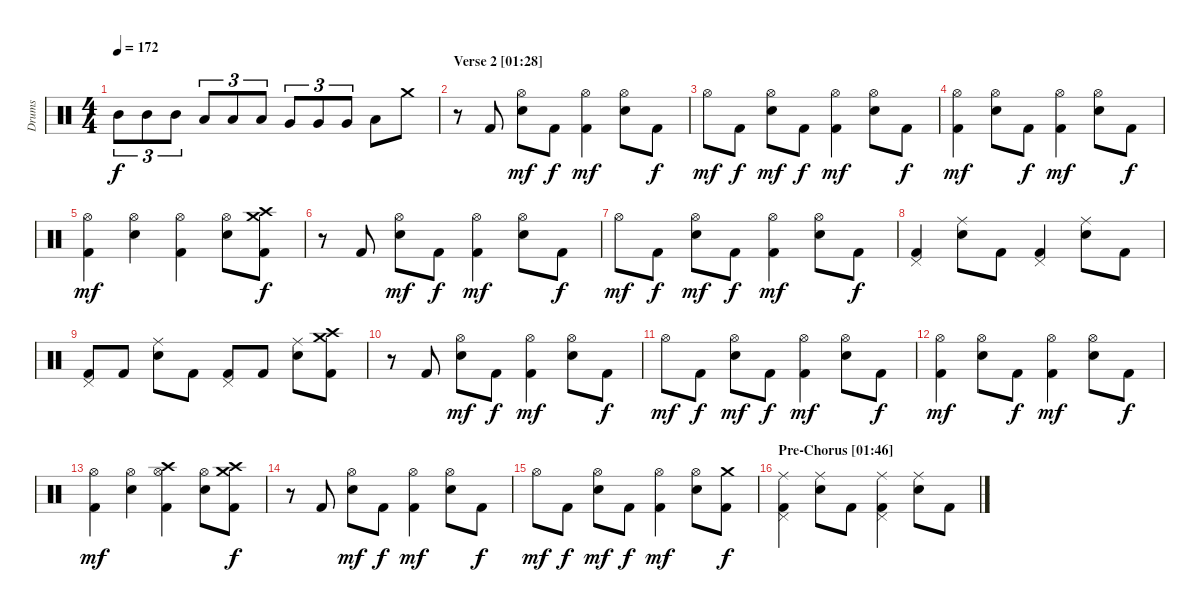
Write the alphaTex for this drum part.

\track ("Drums" "Drums") {instrument percussion}
\staff {score}
\articulation defaults
\ts (4 4)
\tempo 172
\clef neutral
\ks c "Mid Tom (hit)".8{tu (3 2) dy f} "Mid Tom (hit)".8{tu (3 2)} "Mid Tom (hit)".8{tu (3 2)} "Low Tom (hit)".8{tu (3 2)} "Low Tom (hit)".8{tu (3 2)} "Low Tom (hit)".8{tu (3 2)} "Very Low Tom (hit)".8{tu (3 2)} "Very Low Tom (hit)".8{tu (3 2)} "Very Low Tom (hit)".8{tu (3 2)} "Low Floor Tom (hit)".8 "Crash medium (hit)".8
|
\section ("" "Verse 2 [01:28]")
r.8 "Kick (hit) 2".8 ("Hi-Hat (open)" "Electric Snare (hit)").8{dy mf} "Kick (hit) 2".8{dy f} ("Hi-Hat (open)" "Kick (hit) 2").4{dy mf} ("Hi-Hat (open)" "Electric Snare (hit)").8 "Kick (hit) 2".8{dy f} |
"Hi-Hat (open)".8{dy mf} "Kick (hit) 2".8{dy f} ("Hi-Hat (open)" "Electric Snare (hit)").8{dy mf} "Kick (hit) 2".8{dy f} ("Hi-Hat (open)" "Kick (hit) 2").4{dy mf} ("Hi-Hat (open)" "Electric Snare (hit)").8 "Kick (hit) 2".8{dy f} |
("Hi-Hat (open)" "Kick (hit) 2").4{dy mf} ("Hi-Hat (open)" "Electric Snare (hit)").8 "Kick (hit) 2".8{dy f} ("Hi-Hat (open)" "Kick (hit) 2").4{dy mf} ("Hi-Hat (open)" "Electric Snare (hit)").8 "Kick (hit) 2".8{dy f} |
("Hi-Hat (open)" "Kick (hit) 2").4{dy mf} ("Hi-Hat (open)" "Electric Snare (hit)").4 ("Hi-Hat (open)" "Kick (hit) 2").4 ("Hi-Hat (open)" "Electric Snare (hit)").8 ("Crash medium (hit)" "Crash high (hit)" "Kick (hit) 2").8{dy f} |
r.8 "Kick (hit) 2".8 ("Hi-Hat (open)" "Electric Snare (hit)").8{dy mf} "Kick (hit) 2".8{dy f} ("Hi-Hat (open)" "Kick (hit) 2").4{dy mf} ("Hi-Hat (open)" "Electric Snare (hit)").8 "Kick (hit) 2".8{dy f} |
"Hi-Hat (open)".8{dy mf} "Kick (hit) 2".8{dy f} ("Hi-Hat (open)" "Electric Snare (hit)").8{dy mf} "Kick (hit) 2".8{dy f} ("Hi-Hat (open)" "Kick (hit) 2").4{dy mf} ("Hi-Hat (open)" "Electric Snare (hit)").8 "Kick (hit) 2".8{dy f} |
("Pedal Hi-Hat (hit)" "Kick (hit) 2").4 ("Ride (middle)" "Electric Snare (hit)").8 "Kick (hit) 2".8 ("Pedal Hi-Hat (hit)" "Kick (hit) 2").4 ("Ride (middle)" "Electric Snare (hit)").8 "Kick (hit) 2".8 |
("Pedal Hi-Hat (hit)" "Kick (hit) 2").8 "Kick (hit) 2".8 ("Ride (middle)" "Electric Snare (hit)").8 "Kick (hit) 2".8 ("Pedal Hi-Hat (hit)" "Kick (hit) 2").8 "Kick (hit) 2".8 ("Ride (middle)" "Electric Snare (hit)").8 ("Crash medium (hit)" "Crash high (hit)" "Kick (hit) 2").8 |
\section ("" "")
r.8 "Kick (hit) 2".8 ("Hi-Hat (open)" "Electric Snare (hit)").8{dy mf} "Kick (hit) 2".8{dy f} ("Hi-Hat (open)" "Kick (hit) 2").4{dy mf} ("Hi-Hat (open)" "Electric Snare (hit)").8 "Kick (hit) 2".8{dy f} |
"Hi-Hat (open)".8{dy mf} "Kick (hit) 2".8{dy f} ("Hi-Hat (open)" "Electric Snare (hit)").8{dy mf} "Kick (hit) 2".8{dy f} ("Hi-Hat (open)" "Kick (hit) 2").4{dy mf} ("Hi-Hat (open)" "Electric Snare (hit)").8 "Kick (hit) 2".8{dy f} |
("Hi-Hat (open)" "Kick (hit) 2").4{dy mf} ("Hi-Hat (open)" "Electric Snare (hit)").8 "Kick (hit) 2".8{dy f} ("Hi-Hat (open)" "Kick (hit) 2").4{dy mf} ("Hi-Hat (open)" "Electric Snare (hit)").8 "Kick (hit) 2".8{dy f} |
("Hi-Hat (open)" "Kick (hit) 2").4{dy mf} ("Hi-Hat (open)" "Electric Snare (hit)").4 ("Hi-Hat (open)" "Crash high (hit)" "Kick (hit) 2").4 ("Hi-Hat (open)" "Electric Snare (hit)").8 ("Crash medium (hit)" "Crash high (hit)" "Kick (hit) 2").8{dy f} |
r.8 "Kick (hit) 2".8 ("Hi-Hat (open)" "Electric Snare (hit)").8{dy mf} "Kick (hit) 2".8{dy f} ("Hi-Hat (open)" "Kick (hit) 2").4{dy mf} ("Hi-Hat (open)" "Electric Snare (hit)").8 "Kick (hit) 2".8{dy f} |
"Hi-Hat (open)".8{dy mf} "Kick (hit) 2".8{dy f} ("Hi-Hat (open)" "Electric Snare (hit)").8{dy mf} "Kick (hit) 2".8{dy f} ("Hi-Hat (open)" "Kick (hit) 2").4{dy mf} ("Hi-Hat (open)" "Electric Snare (hit)").8 ("Crash medium (hit)" "Kick (hit) 2").8{dy f} |
\section ("" "Pre-Chorus [01:46]")
("Pedal Hi-Hat (hit)" "Ride (middle)" "Kick (hit) 2").4 ("Ride (middle)" "Electric Snare (hit)").8 "Kick (hit) 2".8 ("Pedal Hi-Hat (hit)" "Ride (middle)" "Kick (hit) 2").4 ("Ride (middle)" "Electric Snare (hit)").8 "Kick (hit) 2".8
